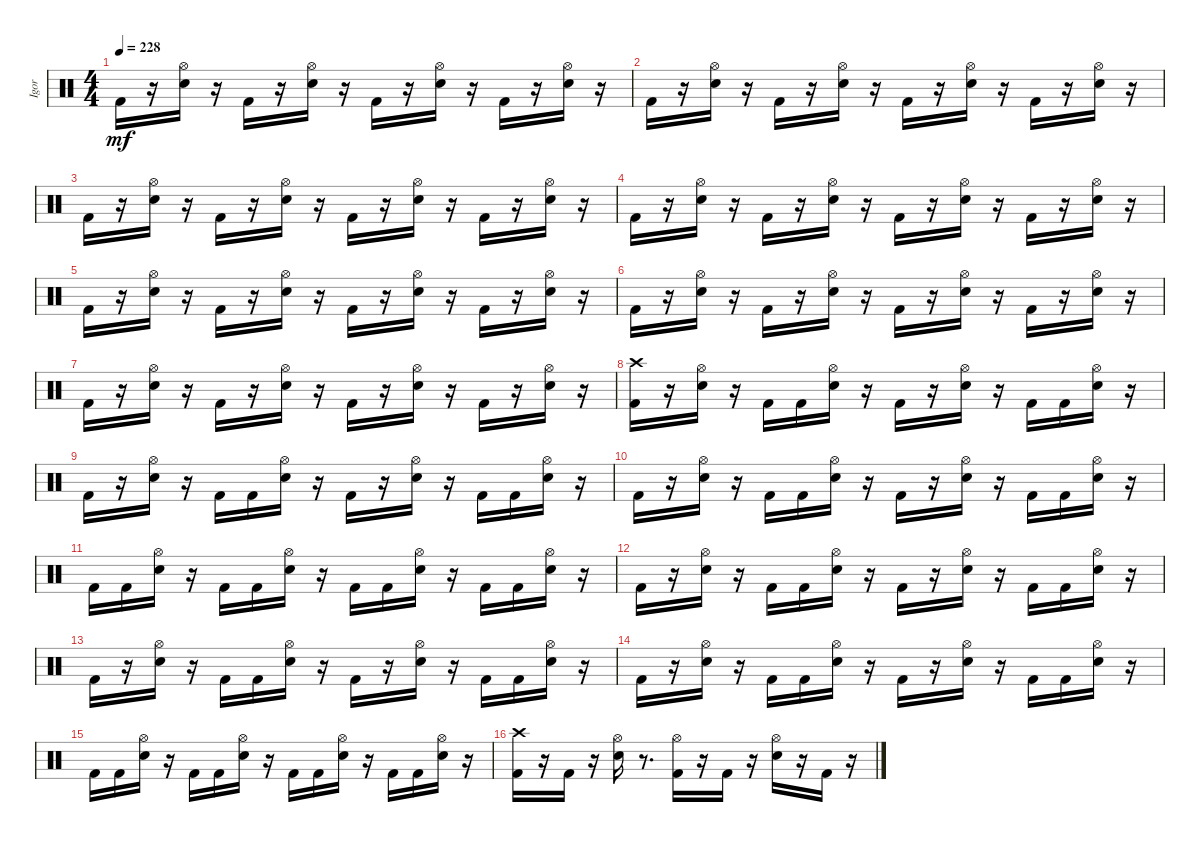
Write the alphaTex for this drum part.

\track ("Igor" "Igor") {instrument percussion}
\staff {score}
\articulation defaults
\ts (4 4)
\tempo 228
\clef neutral
\ks c "Kick (hit) 2".16{dy mf}
r.16 ("Snare (hit) 2" "Hi-Hat (open)").16 r.16 "Kick (hit) 2".16 r.16 ("Snare (hit) 2" "Hi-Hat (open)").16 r.16 "Kick (hit) 2".16 r.16 ("Snare (hit) 2" "Hi-Hat (open)").16 r.16 "Kick (hit) 2".16 r.16 ("Snare (hit) 2" "Hi-Hat (open)").16 r.16 |
"Kick (hit) 2".16 r.16 ("Snare (hit) 2" "Hi-Hat (open)").16 r.16 "Kick (hit) 2".16 r.16 ("Snare (hit) 2" "Hi-Hat (open)").16 r.16 "Kick (hit) 2".16 r.16 ("Snare (hit) 2" "Hi-Hat (open)").16 r.16 "Kick (hit) 2".16 r.16 ("Snare (hit) 2" "Hi-Hat (open)").16 r.16 |
"Kick (hit) 2".16 r.16 ("Snare (hit) 2" "Hi-Hat (open)").16 r.16 "Kick (hit) 2".16 r.16 ("Snare (hit) 2" "Hi-Hat (open)").16 r.16 "Kick (hit) 2".16 r.16 ("Snare (hit) 2" "Hi-Hat (open)").16 r.16 "Kick (hit) 2".16 r.16 ("Snare (hit) 2" "Hi-Hat (open)").16 r.16 |
"Kick (hit) 2".16 r.16 ("Snare (hit) 2" "Hi-Hat (open)").16 r.16 "Kick (hit) 2".16 r.16 ("Snare (hit) 2" "Hi-Hat (open)").16 r.16 "Kick (hit) 2".16 r.16 ("Snare (hit) 2" "Hi-Hat (open)").16 r.16 "Kick (hit) 2".16 r.16 ("Snare (hit) 2" "Hi-Hat (open)").16 r.16 |
"Kick (hit) 2".16 r.16 ("Snare (hit) 2" "Hi-Hat (open)").16 r.16 "Kick (hit) 2".16 r.16 ("Snare (hit) 2" "Hi-Hat (open)").16 r.16 "Kick (hit) 2".16 r.16 ("Snare (hit) 2" "Hi-Hat (open)").16 r.16 "Kick (hit) 2".16 r.16 ("Snare (hit) 2" "Hi-Hat (open)").16 r.16 |
"Kick (hit) 2".16 r.16 ("Snare (hit) 2" "Hi-Hat (open)").16 r.16 "Kick (hit) 2".16 r.16 ("Snare (hit) 2" "Hi-Hat (open)").16 r.16 "Kick (hit) 2".16 r.16 ("Snare (hit) 2" "Hi-Hat (open)").16 r.16 "Kick (hit) 2".16 r.16 ("Snare (hit) 2" "Hi-Hat (open)").16 r.16 |
"Kick (hit) 2".16 r.16 ("Snare (hit) 2" "Hi-Hat (open)").16 r.16 "Kick (hit) 2".16 r.16 ("Snare (hit) 2" "Hi-Hat (open)").16 r.16 "Kick (hit) 2".16 r.16 ("Snare (hit) 2" "Hi-Hat (open)").16 r.16 "Kick (hit) 2".16 r.16 ("Snare (hit) 2" "Hi-Hat (open)").16 r.16 |
("Kick (hit) 2" "Crash high (hit)").16 r.16 ("Snare (hit) 2" "Hi-Hat (open)").16 r.16 "Kick (hit) 2".16 "Kick (hit) 2".16 ("Snare (hit) 2" "Hi-Hat (open)").16 r.16 "Kick (hit) 2".16 r.16 ("Snare (hit) 2" "Hi-Hat (open)").16 r.16 "Kick (hit) 2".16 "Kick (hit) 2".16 ("Snare (hit) 2" "Hi-Hat (open)").16 r.16 |
"Kick (hit) 2".16 r.16 ("Snare (hit) 2" "Hi-Hat (open)").16 r.16 "Kick (hit) 2".16 "Kick (hit) 2".16 ("Snare (hit) 2" "Hi-Hat (open)").16 r.16 "Kick (hit) 2".16 r.16 ("Snare (hit) 2" "Hi-Hat (open)").16 r.16 "Kick (hit) 2".16 "Kick (hit) 2".16 ("Snare (hit) 2" "Hi-Hat (open)").16 r.16 |
"Kick (hit) 2".16 r.16 ("Snare (hit) 2" "Hi-Hat (open)").16 r.16 "Kick (hit) 2".16 "Kick (hit) 2".16 ("Snare (hit) 2" "Hi-Hat (open)").16 r.16 "Kick (hit) 2".16 r.16 ("Snare (hit) 2" "Hi-Hat (open)").16 r.16 "Kick (hit) 2".16 "Kick (hit) 2".16 ("Snare (hit) 2" "Hi-Hat (open)").16 r.16 |
"Kick (hit) 2".16 "Kick (hit) 2".16 ("Snare (hit) 2" "Hi-Hat (open)").16 r.16 "Kick (hit) 2".16 "Kick (hit) 2".16 ("Snare (hit) 2" "Hi-Hat (open)").16 r.16 "Kick (hit) 2".16 "Kick (hit) 2".16 ("Snare (hit) 2" "Hi-Hat (open)").16 r.16 "Kick (hit) 2".16 "Kick (hit) 2".16 ("Snare (hit) 2" "Hi-Hat (open)").16 r.16 |
"Kick (hit) 2".16 r.16 ("Snare (hit) 2" "Hi-Hat (open)").16 r.16 "Kick (hit) 2".16 "Kick (hit) 2".16 ("Snare (hit) 2" "Hi-Hat (open)").16 r.16 "Kick (hit) 2".16 r.16 ("Snare (hit) 2" "Hi-Hat (open)").16 r.16 "Kick (hit) 2".16 "Kick (hit) 2".16 ("Snare (hit) 2" "Hi-Hat (open)").16 r.16 |
"Kick (hit) 2".16 r.16 ("Snare (hit) 2" "Hi-Hat (open)").16 r.16 "Kick (hit) 2".16 "Kick (hit) 2".16 ("Snare (hit) 2" "Hi-Hat (open)").16 r.16 "Kick (hit) 2".16 r.16 ("Snare (hit) 2" "Hi-Hat (open)").16 r.16 "Kick (hit) 2".16 "Kick (hit) 2".16 ("Snare (hit) 2" "Hi-Hat (open)").16 r.16 |
"Kick (hit) 2".16 r.16 ("Snare (hit) 2" "Hi-Hat (open)").16 r.16 "Kick (hit) 2".16 "Kick (hit) 2".16 ("Snare (hit) 2" "Hi-Hat (open)").16 r.16 "Kick (hit) 2".16 r.16 ("Snare (hit) 2" "Hi-Hat (open)").16 r.16 "Kick (hit) 2".16 "Kick (hit) 2".16 ("Snare (hit) 2" "Hi-Hat (open)").16 r.16 |
"Kick (hit) 2".16 "Kick (hit) 2".16 ("Snare (hit) 2" "Hi-Hat (open)").16 r.16 "Kick (hit) 2".16 "Kick (hit) 2".16 ("Snare (hit) 2" "Hi-Hat (open)").16 r.16 "Kick (hit) 2".16 "Kick (hit) 2".16 ("Snare (hit) 2" "Hi-Hat (open)").16 r.16 "Kick (hit) 2".16 "Kick (hit) 2".16 ("Snare (hit) 2" "Hi-Hat (open)").16 r.16 |
("Crash high (hit)" "Kick (hit) 2").16 r.16 "Kick (hit) 2".16 r.16 ("Snare (hit) 2" "Hi-Hat (open)").16 r.8{d} ("Kick (hit) 2" "Hi-Hat (open)").16 r.16 "Kick (hit) 2".16 r.16 ("Snare (hit) 2" "Hi-Hat (open)").16 r.16 "Kick (hit) 2".16 r.16
